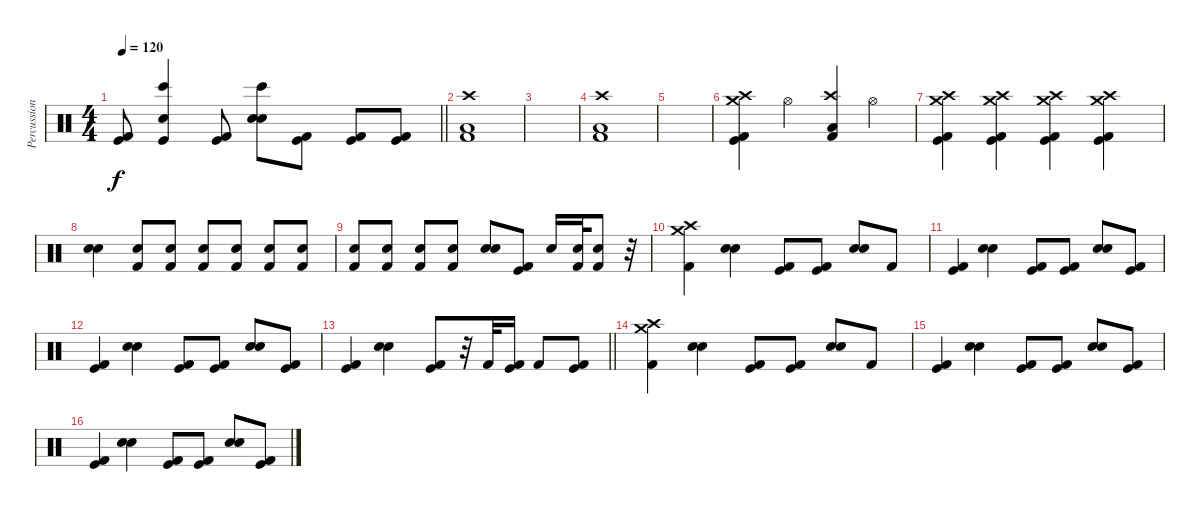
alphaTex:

\track ("Percussion" "Percussion") {instrument percussion}
\staff {score}
\articulation defaults
\ts (4 4)
\tempo 120
\clef neutral
\barLineRight lightlight
\ks c
("Kick (hit) 2" "Kick (hit)").8{dy f} ("Bongo High (hit)" "Snare (hit) 2" "Kick (hit)").4 ("Kick (hit)" "Kick (hit) 2").8 ("Bongo High (hit)" "Snare (hit) 2" "Electric Snare (hit)").8 ("Kick (hit) 2" "Kick (hit)").8 ("Kick (hit) 2" "Kick (hit)").8 ("Kick (hit)" "Kick (hit) 2").8 |
("Crash high (hit)" "Low Floor Tom (hit)" "Kick (hit) 2").1 |
|
("Crash high (hit)" "Low Floor Tom (hit)" "Kick (hit) 2").1 |
|
("Crash high (hit)" "Crash medium (hit)" "Kick (hit)" "Kick (hit) 2").4 "Hi-Hat (open)".4 ("Crash high (hit)" "Low Floor Tom (hit)" "Kick (hit) 2").4 "Hi-Hat (open)".4 |
("Crash high (hit)" "Crash medium (hit)" "Kick (hit)" "Kick (hit) 2").4 ("Crash high (hit)" "Crash medium (hit)" "Kick (hit)" "Kick (hit) 2").4 ("Crash high (hit)" "Crash medium (hit)" "Kick (hit)" "Kick (hit) 2").4 ("Crash high (hit)" "Crash medium (hit)" "Kick (hit)" "Kick (hit) 2").4 |
("Electric Snare (hit)" "Snare (hit) 2").4 ("Kick (hit) 2" "Electric Snare (hit)").8 ("Kick (hit) 2" "Electric Snare (hit)").8 ("Kick (hit) 2" "Electric Snare (hit)").8 ("Kick (hit) 2" "Electric Snare (hit)").8 ("Kick (hit) 2" "Electric Snare (hit)").8 ("Kick (hit) 2" "Electric Snare (hit)").8 |
("Kick (hit) 2" "Electric Snare (hit)").8 ("Kick (hit) 2" "Electric Snare (hit)").8 ("Kick (hit) 2" "Electric Snare (hit)").8 ("Kick (hit) 2" "Electric Snare (hit)").8 ("Snare (hit) 2" "Electric Snare (hit)").8 ("Kick (hit) 2" "Kick (hit)").8 "Electric Snare (hit)".16 ("Kick (hit) 2" "Electric Snare (hit)").32 ("Kick (hit) 2" "Electric Snare (hit)").8 r.32 |
("Crash high (hit)" "Crash medium (hit)" "Kick (hit) 2").4 ("Snare (hit) 2" "Electric Snare (hit)").4 ("Kick (hit)" "Kick (hit) 2").8 ("Kick (hit)" "Kick (hit) 2").8 ("Snare (hit) 2" "Electric Snare (hit)").8 "Kick (hit) 2".8 |
("Kick (hit)" "Kick (hit) 2").4 ("Snare (hit) 2" "Electric Snare (hit)").4 ("Kick (hit)" "Kick (hit) 2").8 ("Kick (hit)" "Kick (hit) 2").8 ("Snare (hit) 2" "Electric Snare (hit)").8 ("Kick (hit)" "Kick (hit) 2").8 |
("Kick (hit)" "Kick (hit) 2").4 ("Snare (hit) 2" "Electric Snare (hit)").4 ("Kick (hit)" "Kick (hit) 2").8 ("Kick (hit)" "Kick (hit) 2").8 ("Snare (hit) 2" "Electric Snare (hit)").8 ("Kick (hit)" "Kick (hit) 2").8 |
\barLineRight lightlight
("Kick (hit)" "Kick (hit) 2").4 ("Snare (hit) 2" "Electric Snare (hit)").4 ("Kick (hit)" "Kick (hit) 2").8 r.32 "Kick (hit) 2".32 ("Kick (hit)" "Kick (hit) 2").16 "Kick (hit) 2".8 ("Kick (hit)" "Kick (hit) 2").8 |
("Crash high (hit)" "Crash medium (hit)" "Kick (hit) 2").4 ("Snare (hit) 2" "Electric Snare (hit)").4 ("Kick (hit)" "Kick (hit) 2").8 ("Kick (hit)" "Kick (hit) 2").8 ("Snare (hit) 2" "Electric Snare (hit)").8 "Kick (hit) 2".8 |
("Kick (hit)" "Kick (hit) 2").4 ("Snare (hit) 2" "Electric Snare (hit)").4 ("Kick (hit)" "Kick (hit) 2").8 ("Kick (hit)" "Kick (hit) 2").8 ("Snare (hit) 2" "Electric Snare (hit)").8 ("Kick (hit)" "Kick (hit) 2").8 |
("Kick (hit)" "Kick (hit) 2").4 ("Snare (hit) 2" "Electric Snare (hit)").4 ("Kick (hit)" "Kick (hit) 2").8 ("Kick (hit)" "Kick (hit) 2").8 ("Snare (hit) 2" "Electric Snare (hit)").8 ("Kick (hit)" "Kick (hit) 2").8
